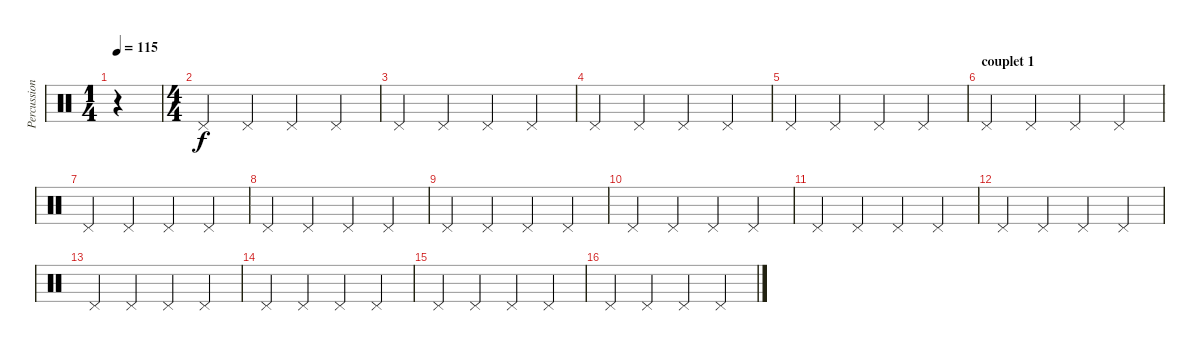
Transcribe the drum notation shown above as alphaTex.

\track ("Percussions" "Percussion") {instrument percussion}
\staff {score}
\articulation defaults
\ts (1 4)
\tempo 115
\clef neutral
\ks c
r.4{dy f} |
\ts (4 4)
"Pedal Hi-Hat (hit)".4 "Pedal Hi-Hat (hit)".4 "Pedal Hi-Hat (hit)".4 "Pedal Hi-Hat (hit)".4 |
"Pedal Hi-Hat (hit)".4 "Pedal Hi-Hat (hit)".4 "Pedal Hi-Hat (hit)".4 "Pedal Hi-Hat (hit)".4 |
"Pedal Hi-Hat (hit)".4 "Pedal Hi-Hat (hit)".4 "Pedal Hi-Hat (hit)".4 "Pedal Hi-Hat (hit)".4 |
"Pedal Hi-Hat (hit)".4 "Pedal Hi-Hat (hit)".4 "Pedal Hi-Hat (hit)".4 "Pedal Hi-Hat (hit)".4 |
\section ("" "couplet 1")
"Pedal Hi-Hat (hit)".4 "Pedal Hi-Hat (hit)".4 "Pedal Hi-Hat (hit)".4 "Pedal Hi-Hat (hit)".4 |
"Pedal Hi-Hat (hit)".4 "Pedal Hi-Hat (hit)".4 "Pedal Hi-Hat (hit)".4 "Pedal Hi-Hat (hit)".4 |
"Pedal Hi-Hat (hit)".4 "Pedal Hi-Hat (hit)".4 "Pedal Hi-Hat (hit)".4 "Pedal Hi-Hat (hit)".4 |
"Pedal Hi-Hat (hit)".4 "Pedal Hi-Hat (hit)".4 "Pedal Hi-Hat (hit)".4 "Pedal Hi-Hat (hit)".4 |
"Pedal Hi-Hat (hit)".4 "Pedal Hi-Hat (hit)".4 "Pedal Hi-Hat (hit)".4 "Pedal Hi-Hat (hit)".4 |
"Pedal Hi-Hat (hit)".4 "Pedal Hi-Hat (hit)".4 "Pedal Hi-Hat (hit)".4 "Pedal Hi-Hat (hit)".4 |
"Pedal Hi-Hat (hit)".4 "Pedal Hi-Hat (hit)".4 "Pedal Hi-Hat (hit)".4 "Pedal Hi-Hat (hit)".4 |
"Pedal Hi-Hat (hit)".4 "Pedal Hi-Hat (hit)".4 "Pedal Hi-Hat (hit)".4 "Pedal Hi-Hat (hit)".4 |
"Pedal Hi-Hat (hit)".4 "Pedal Hi-Hat (hit)".4 "Pedal Hi-Hat (hit)".4 "Pedal Hi-Hat (hit)".4 |
"Pedal Hi-Hat (hit)".4 "Pedal Hi-Hat (hit)".4 "Pedal Hi-Hat (hit)".4 "Pedal Hi-Hat (hit)".4 |
"Pedal Hi-Hat (hit)".4 "Pedal Hi-Hat (hit)".4 "Pedal Hi-Hat (hit)".4 "Pedal Hi-Hat (hit)".4
